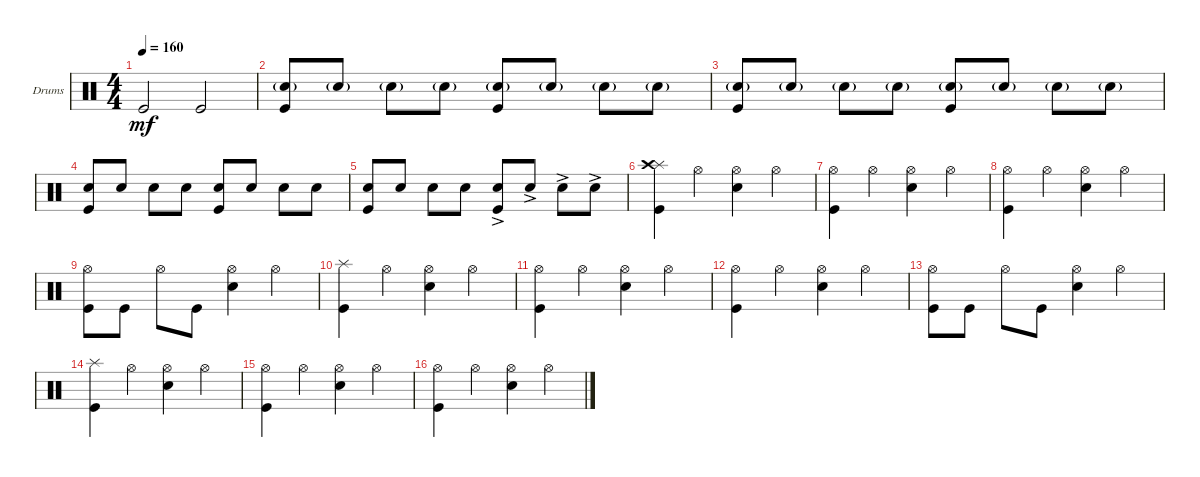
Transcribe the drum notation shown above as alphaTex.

\defaultSystemsLayout 4
\bracketExtendMode groupsimilarinstruments
\firstSystemTrackNameOrientation horizontal
\otherSystemsTrackNameOrientation horizontal
\track ("Drumkit" "Drums") {instrument percussion}
\staff {score}
\articulation defaults
\ts (4 4)
\tempo 160
\clef neutral
\scale
0.333333
\ks c "Kick (hit)".2{dy mf} "Kick (hit)".2
|
\scale
0.333333 ("Kick (hit)" "Snare (hit) 2"{g}).8 "Snare (hit) 2"{g}.8 "Snare (hit) 2"{g}.8 "Snare (hit) 2"{g}.8 ("Kick (hit)" "Snare (hit) 2"{g}).8 "Snare (hit) 2"{g}.8 "Snare (hit) 2"{g}.8 "Snare (hit) 2"{g}.8 |
\scale
0.333333 ("Kick (hit)" "Snare (hit) 2"{g}).8 "Snare (hit) 2"{g}.8 "Snare (hit) 2"{g}.8 "Snare (hit) 2"{g}.8 ("Kick (hit)" "Snare (hit) 2"{g}).8 "Snare (hit) 2"{g}.8 "Snare (hit) 2"{g}.8 "Snare (hit) 2"{g}.8 |
\scale
0.333333 ("Kick (hit)" "Snare (hit) 2").8 "Snare (hit) 2".8 "Snare (hit) 2".8 "Snare (hit) 2".8 ("Kick (hit)" "Snare (hit) 2").8 "Snare (hit) 2".8 "Snare (hit) 2".8 "Snare (hit) 2".8 |
\scale
0.333333 ("Kick (hit)" "Snare (hit) 2").8 "Snare (hit) 2".8 "Snare (hit) 2".8 "Snare (hit) 2".8 ("Kick (hit)" "Snare (hit) 2"{ac}).8 "Snare (hit) 2"{ac}.8 "Snare (hit) 2"{ac}.8 "Snare (hit) 2"{ac}.8 |
\scale
0.333333 ("Kick (hit)" "Splash (hit)" "Crash high (hit)").4 "Hi-Hat (open)".4 ("Snare (hit) 2" "Hi-Hat (open)").4 "Hi-Hat (open)".4 |
\scale
0.333333 ("Kick (hit)" "Hi-Hat (open)").4 "Hi-Hat (open)".4 ("Snare (hit) 2" "Hi-Hat (open)").4 "Hi-Hat (open)".4 |
\scale
0.333333 ("Kick (hit)" "Hi-Hat (open)").4 "Hi-Hat (open)".4 ("Snare (hit) 2" "Hi-Hat (open)").4 "Hi-Hat (open)".4 |
\scale
0.333333 ("Kick (hit)" "Hi-Hat (open)").8 "Kick (hit)".8 "Hi-Hat (open)".8 "Kick (hit)".8 ("Snare (hit) 2" "Hi-Hat (open)").4 "Hi-Hat (open)".4 |
\scale
0.333333 ("Kick (hit)" "Splash (hit)").4 "Hi-Hat (open)".4 ("Snare (hit) 2" "Hi-Hat (open)").4 "Hi-Hat (open)".4 |
\scale
0.333333 ("Kick (hit)" "Hi-Hat (open)").4 "Hi-Hat (open)".4 ("Snare (hit) 2" "Hi-Hat (open)").4 "Hi-Hat (open)".4 |
\scale
0.333333 ("Kick (hit)" "Hi-Hat (open)").4 "Hi-Hat (open)".4 ("Snare (hit) 2" "Hi-Hat (open)").4 "Hi-Hat (open)".4 |
\scale
0.333333 ("Kick (hit)" "Hi-Hat (open)").8 "Kick (hit)".8 "Hi-Hat (open)".8 "Kick (hit)".8 ("Snare (hit) 2" "Hi-Hat (open)").4 "Hi-Hat (open)".4 |
\scale
0.333333 ("Kick (hit)" "Splash (hit)").4 "Hi-Hat (open)".4 ("Snare (hit) 2" "Hi-Hat (open)").4 "Hi-Hat (open)".4 |
\scale
0.333333 ("Kick (hit)" "Hi-Hat (open)").4 "Hi-Hat (open)".4 ("Snare (hit) 2" "Hi-Hat (open)").4 "Hi-Hat (open)".4 |
\scale
0.333333 ("Kick (hit)" "Hi-Hat (open)").4 "Hi-Hat (open)".4 ("Snare (hit) 2" "Hi-Hat (open)").4 "Hi-Hat (open)".4
